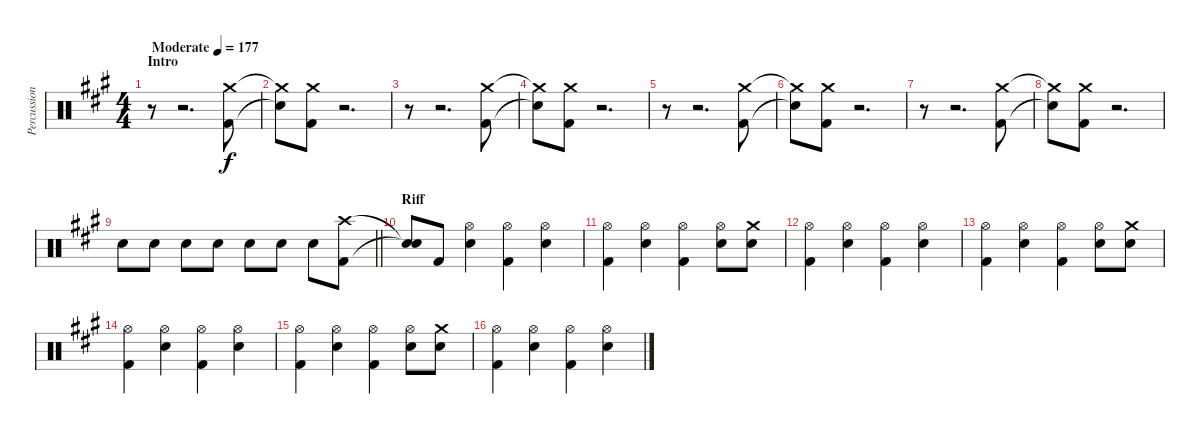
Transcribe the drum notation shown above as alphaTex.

\track ("Percussion" "Percussion") {instrument percussion}
\staff {score}
\articulation defaults
\ts (4 4)
\section ("" "Intro")
\tempo (177 "Moderate")
\clef neutral
\ks a
r.8{dy f} r.2{d} ("Kick (hit) 2" "Crash medium (hit)").8 |
("Snare (hit)"{t} "Crash medium (hit)"{t}).8 ("Kick (hit) 2" "Crash medium (hit)").8 r.2{d volume 0} |
r.8 r.2{d} ("Kick (hit) 2" "Crash medium (hit)").8{volume 16} |
("Snare (hit)"{t} "Crash medium (hit)"{t}).8 ("Kick (hit) 2" "Crash medium (hit)").8 r.2{d volume 0} |
r.8 r.2{d} ("Kick (hit) 2" "Crash medium (hit)").8{volume 16} |
("Snare (hit)"{t} "Crash medium (hit)"{t}).8 ("Kick (hit) 2" "Crash medium (hit)").8 r.2{d volume 0} |
r.8 r.2{d} ("Kick (hit) 2" "Crash medium (hit)").8{volume 16} |
("Snare (hit)"{t} "Crash medium (hit)"{t}).8 ("Kick (hit) 2" "Crash medium (hit)").8{volume 16} r.2{d volume 0} |
\barLineRight lightlight "Snare (hit) 2".8{volume 16} "Snare (hit) 2".8 "Snare (hit) 2".8 "Snare (hit) 2".8 "Snare (hit) 2".8 "Snare (hit) 2".8 "Snare (hit) 2".8
("Kick (hit) 2" "Crash high (hit)").8 |
\section ("" "Riff")
("Snare (hit)"{t} "Snare (hit)"{t}).8 "Kick (hit) 2".8 ("Hi-Hat (open)" "Snare (hit) 2").4 ("Hi-Hat (open)" "Kick (hit) 2").4 ("Hi-Hat (open)" "Snare (hit) 2").4 |
("Hi-Hat (open)" "Kick (hit) 2").4 ("Hi-Hat (open)" "Snare (hit) 2").4 ("Hi-Hat (open)" "Kick (hit) 2").4 ("Hi-Hat (open)" "Snare (hit) 2").8 ("Snare (hit) 2" "Crash medium (hit)").8 |
("Hi-Hat (open)" "Kick (hit) 2").4 ("Hi-Hat (open)" "Snare (hit) 2").4 ("Hi-Hat (open)" "Kick (hit) 2").4 ("Hi-Hat (open)" "Snare (hit) 2").4 |
("Hi-Hat (open)" "Kick (hit) 2").4 ("Hi-Hat (open)" "Snare (hit) 2").4 ("Hi-Hat (open)" "Kick (hit) 2").4 ("Hi-Hat (open)" "Snare (hit) 2").8 ("Snare (hit) 2" "Crash medium (hit)").8 |
("Hi-Hat (open)" "Kick (hit) 2").4 ("Hi-Hat (open)" "Snare (hit) 2").4 ("Hi-Hat (open)" "Kick (hit) 2").4 ("Hi-Hat (open)" "Snare (hit) 2").4 |
("Hi-Hat (open)" "Kick (hit) 2").4 ("Hi-Hat (open)" "Snare (hit) 2").4 ("Hi-Hat (open)" "Kick (hit) 2").4 ("Hi-Hat (open)" "Snare (hit) 2").8 ("Snare (hit) 2" "Crash medium (hit)").8 |
("Hi-Hat (open)" "Kick (hit) 2").4 ("Hi-Hat (open)" "Snare (hit) 2").4 ("Hi-Hat (open)" "Kick (hit) 2").4 ("Hi-Hat (open)" "Snare (hit) 2").4
